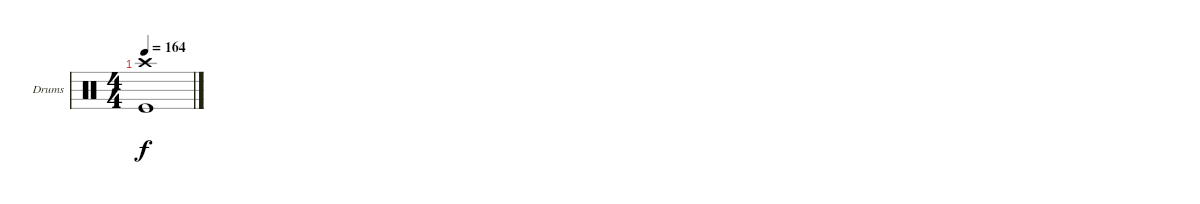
\defaultSystemsLayout 4
\bracketExtendMode groupsimilarinstruments
\firstSystemTrackNameOrientation horizontal
\otherSystemsTrackNameOrientation horizontal
\track ("Drumkit" "Drums") {instrument percussion}
\staff {score}
\articulation defaults
\ts (4 4)
\tempo 164
\clef neutral
\ks c
("Kick (hit)" "Crash high (hit)").1{dy f}
